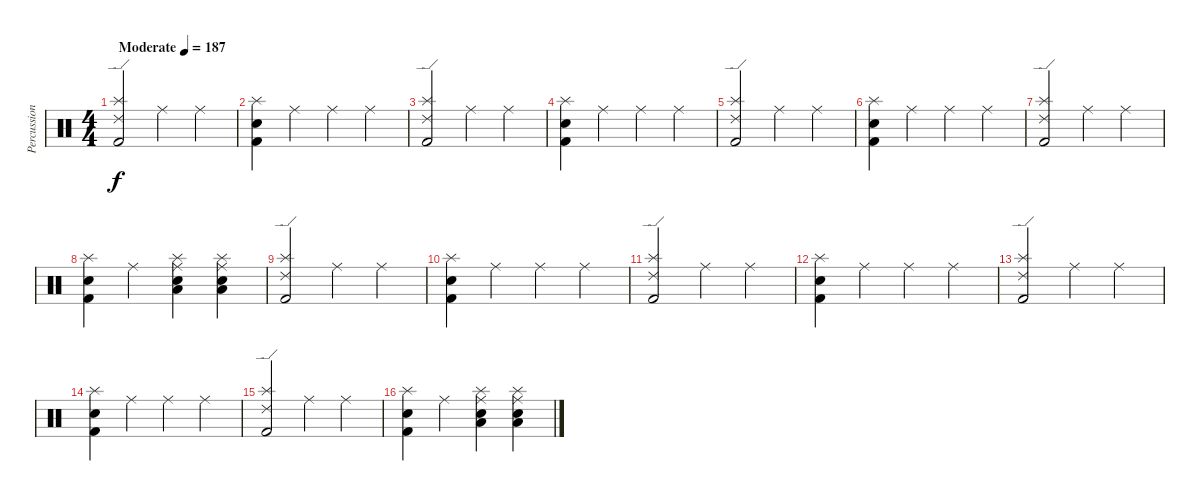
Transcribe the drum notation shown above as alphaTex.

\track ("Percussion" "Percussion") {instrument percussion}
\staff {score}
\articulation defaults
\ts (4 4)
\tempo (187 "Moderate")
\clef neutral
\ks c
("Ride (edge) 2" "Splash (hit)" "Kick (hit) 2").2{dy f} "Ride (middle)".4 "Ride (middle)".4 |
("Electric Snare (hit)" "Splash (hit)" "Kick (hit) 2").4 "Ride (middle)".4 "Ride (middle)".4 "Ride (middle)".4 |
("Ride (edge) 2" "Splash (hit)" "Kick (hit) 2").2 "Ride (middle)".4 "Ride (middle)".4 |
("Electric Snare (hit)" "Splash (hit)" "Kick (hit) 2").4 "Ride (middle)".4 "Ride (middle)".4 "Ride (middle)".4 |
("Ride (edge) 2" "Splash (hit)" "Kick (hit) 2").2 "Ride (middle)".4 "Ride (middle)".4 |
("Electric Snare (hit)" "Splash (hit)" "Kick (hit) 2").4 "Ride (middle)".4 "Ride (middle)".4 "Ride (middle)".4 |
("Ride (edge) 2" "Splash (hit)" "Kick (hit) 2").2 "Ride (middle)".4 "Ride (middle)".4 |
("Electric Snare (hit)" "Splash (hit)" "Kick (hit) 2").4 "Ride (middle)".4 ("Splash (hit)" "Ride (middle)" "Low Tom (hit)" "Electric Snare (hit)").4 ("Splash (hit)" "Ride (middle)" "Low Tom (hit)" "Electric Snare (hit)").4 |
("Ride (edge) 2" "Splash (hit)" "Kick (hit) 2").2 "Ride (middle)".4 "Ride (middle)".4 |
("Electric Snare (hit)" "Splash (hit)" "Kick (hit) 2").4 "Ride (middle)".4 "Ride (middle)".4 "Ride (middle)".4 |
("Ride (edge) 2" "Splash (hit)" "Kick (hit) 2").2 "Ride (middle)".4 "Ride (middle)".4 |
("Electric Snare (hit)" "Splash (hit)" "Kick (hit) 2").4 "Ride (middle)".4 "Ride (middle)".4 "Ride (middle)".4 |
("Ride (edge) 2" "Splash (hit)" "Kick (hit) 2").2 "Ride (middle)".4 "Ride (middle)".4 |
("Electric Snare (hit)" "Splash (hit)" "Kick (hit) 2").4 "Ride (middle)".4 "Ride (middle)".4 "Ride (middle)".4 |
("Ride (edge) 2" "Splash (hit)" "Kick (hit) 2").2 "Ride (middle)".4 "Ride (middle)".4 |
("Electric Snare (hit)" "Splash (hit)" "Kick (hit) 2").4 "Ride (middle)".4 ("Splash (hit)" "Ride (middle)" "Low Tom (hit)" "Electric Snare (hit)").4 ("Splash (hit)" "Ride (middle)" "Low Tom (hit)" "Electric Snare (hit)").4
